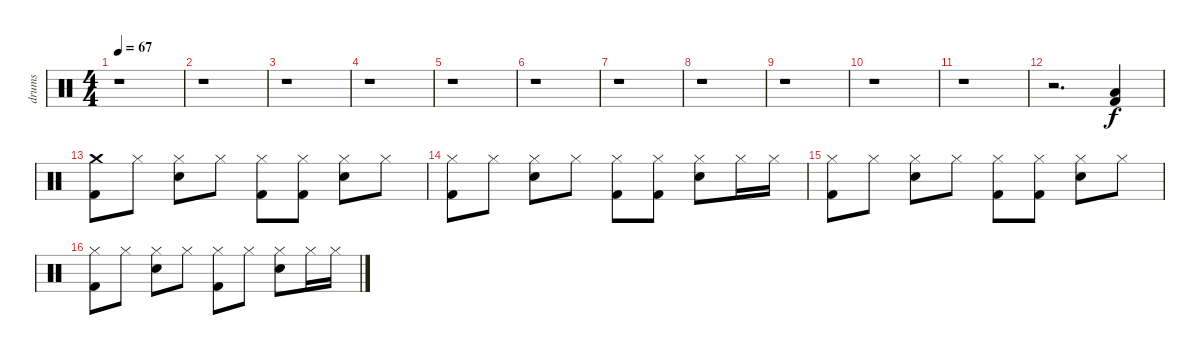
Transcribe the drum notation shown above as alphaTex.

\track ("drums" "drums") {instrument percussion}
\staff {score}
\articulation defaults
\ts (4 4)
\tempo 67
\clef neutral
\ks c
r.1{dy f} |
r.1 |
r.1 |
r.1 |
r.1 |
r.1 |
r.1 |
r.1 |
r.1 |
r.1 |
r.1 |
r.2{d} ("Low Tom (hit)" "Kick (hit) 2").4 |
("Crash medium (hit)" "Kick (hit) 2").8 "Hi-Hat (closed)".8 ("Hi-Hat (closed)" "Snare (hit) 2").8 "Hi-Hat (closed)".8 ("Hi-Hat (closed)" "Kick (hit) 2").8 ("Hi-Hat (closed)" "Kick (hit) 2").8 ("Hi-Hat (closed)" "Snare (hit) 2").8 "Hi-Hat (closed)".8 |
("Hi-Hat (closed)" "Kick (hit) 2").8 "Hi-Hat (closed)".8 ("Hi-Hat (closed)" "Snare (hit) 2").8 "Hi-Hat (closed)".8 ("Hi-Hat (closed)" "Kick (hit) 2").8 ("Hi-Hat (closed)" "Kick (hit) 2").8 ("Hi-Hat (closed)" "Snare (hit) 2").8 "Hi-Hat (closed)".16 "Hi-Hat (closed)".16 |
("Hi-Hat (closed)" "Kick (hit) 2").8 "Hi-Hat (closed)".8 ("Hi-Hat (closed)" "Snare (hit) 2").8 "Hi-Hat (closed)".8 ("Hi-Hat (closed)" "Kick (hit) 2").8 ("Hi-Hat (closed)" "Kick (hit) 2").8 ("Hi-Hat (closed)" "Snare (hit) 2").8 "Hi-Hat (closed)".8 |
("Hi-Hat (closed)" "Kick (hit) 2").8 "Hi-Hat (closed)".8 ("Hi-Hat (closed)" "Snare (hit) 2").8 "Hi-Hat (closed)".8 ("Hi-Hat (closed)" "Kick (hit) 2").8 "Hi-Hat (closed)".8 ("Hi-Hat (closed)" "Snare (hit) 2").8 "Hi-Hat (closed)".16 "Hi-Hat (closed)".16
